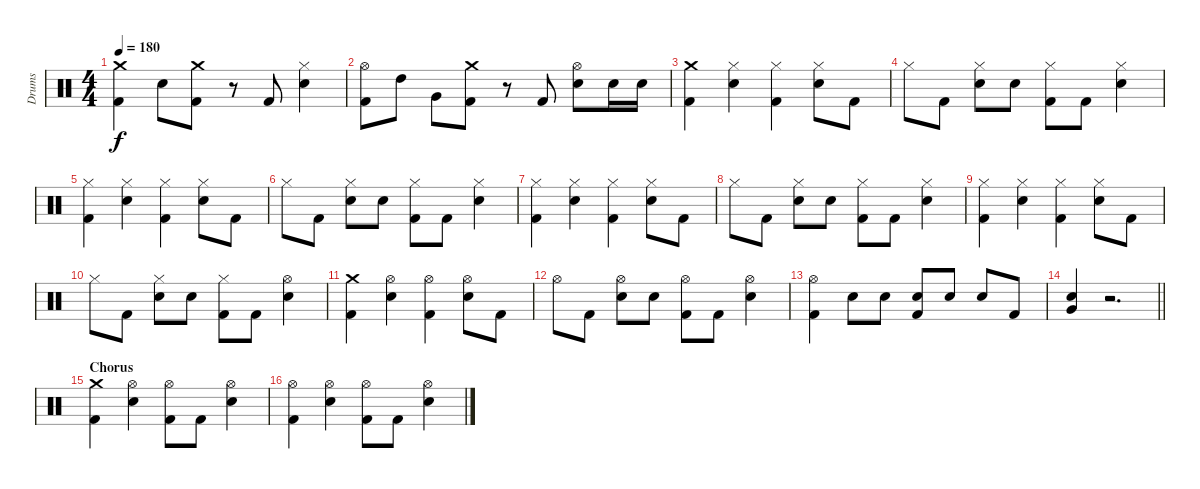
\track ("Drums" "Drums") {instrument percussion}
\staff {score}
\articulation defaults
\ts (4 4)
\tempo 180
\clef neutral
\ks c
("Crash medium (hit)" "Kick (hit) 2").4{dy f} "Snare (hit) 2".8 ("Crash medium (hit)" "Kick (hit) 2").8 r.8 "Kick (hit) 2".8 ("Hi-Hat (closed)" "Snare (hit) 2").4 |
("Hi-Hat (open)" "Kick (hit) 2").8 "High Tom (hit)".8 "Very Low Tom (hit)".8 ("Crash medium (hit)" "Kick (hit) 2").8 r.8 "Kick (hit) 2".8 ("Hi-Hat (open)" "Snare (hit) 2").8 "Snare (hit) 2".16 "Snare (hit) 2".16 |
("Crash medium (hit)" "Kick (hit) 2").4 ("Hi-Hat (closed)" "Snare (hit) 2").4 ("Hi-Hat (closed)" "Kick (hit) 2").4 ("Hi-Hat (closed)" "Snare (hit) 2").8 "Kick (hit) 2".8 |
"Hi-Hat (closed)".8 "Kick (hit) 2".8 ("Hi-Hat (closed)" "Snare (hit) 2").8 "Snare (hit) 2".8 ("Hi-Hat (closed)" "Kick (hit) 2").8 "Kick (hit) 2".8 ("Hi-Hat (closed)" "Snare (hit) 2").4 |
("Hi-Hat (closed)" "Kick (hit) 2").4 ("Hi-Hat (closed)" "Snare (hit) 2").4 ("Hi-Hat (closed)" "Kick (hit) 2").4 ("Hi-Hat (closed)" "Snare (hit) 2").8 "Kick (hit) 2".8 |
"Hi-Hat (closed)".8 "Kick (hit) 2".8 ("Hi-Hat (closed)" "Snare (hit) 2").8 "Snare (hit) 2".8 ("Hi-Hat (closed)" "Kick (hit) 2").8 "Kick (hit) 2".8 ("Hi-Hat (closed)" "Snare (hit) 2").4 |
("Hi-Hat (closed)" "Kick (hit) 2").4 ("Hi-Hat (closed)" "Snare (hit) 2").4 ("Hi-Hat (closed)" "Kick (hit) 2").4 ("Hi-Hat (closed)" "Snare (hit) 2").8 "Kick (hit) 2".8 |
"Hi-Hat (closed)".8 "Kick (hit) 2".8 ("Hi-Hat (closed)" "Snare (hit) 2").8 "Snare (hit) 2".8 ("Hi-Hat (closed)" "Kick (hit) 2").8 "Kick (hit) 2".8 ("Hi-Hat (closed)" "Snare (hit) 2").4 |
("Hi-Hat (closed)" "Kick (hit) 2").4 ("Hi-Hat (closed)" "Snare (hit) 2").4 ("Hi-Hat (closed)" "Kick (hit) 2").4 ("Hi-Hat (closed)" "Snare (hit) 2").8 "Kick (hit) 2".8 |
"Hi-Hat (closed)".8 "Kick (hit) 2".8 ("Hi-Hat (closed)" "Snare (hit) 2").8 "Snare (hit) 2".8 ("Hi-Hat (closed)" "Kick (hit) 2").8 "Kick (hit) 2".8 ("Hi-Hat (open)" "Snare (hit) 2").4 |
("Crash medium (hit)" "Kick (hit) 2").4 ("Hi-Hat (open)" "Snare (hit) 2").4 ("Hi-Hat (open)" "Kick (hit) 2").4 ("Hi-Hat (open)" "Snare (hit) 2").8 "Kick (hit) 2".8 |
"Hi-Hat (open)".8 "Kick (hit) 2".8 ("Hi-Hat (open)" "Snare (hit) 2").8 "Snare (hit) 2".8 ("Hi-Hat (open)" "Kick (hit) 2").8 "Kick (hit) 2".8 ("Hi-Hat (open)" "Snare (hit) 2").4 |
("Hi-Hat (open)" "Kick (hit) 2").4 "Snare (hit) 2".8 "Snare (hit) 2".8 ("Snare (hit) 2" "Kick (hit) 2").8 "Snare (hit) 2".8 "Snare (hit) 2".8 "Kick (hit) 2".8 |
\barLineRight lightlight
("Snare (hit) 2" "Very Low Tom (hit)").4 r.2{d} |
\section ("" "Chorus")
("Crash medium (hit)" "Kick (hit) 2").4 ("Hi-Hat (open)" "Snare (hit) 2").4 ("Hi-Hat (open)" "Kick (hit) 2").8 "Kick (hit) 2".8 ("Hi-Hat (open)" "Snare (hit) 2").4 |
("Hi-Hat (open)" "Kick (hit) 2").4 ("Hi-Hat (open)" "Snare (hit) 2").4 ("Hi-Hat (open)" "Kick (hit) 2").8 "Kick (hit) 2".8 ("Hi-Hat (open)" "Snare (hit) 2").4
